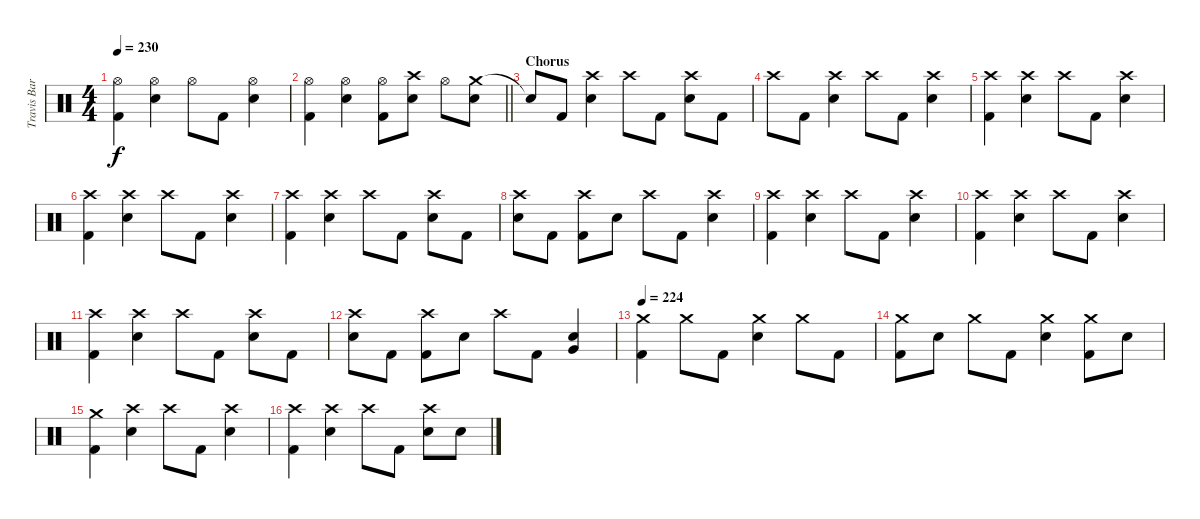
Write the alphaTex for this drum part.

\track ("Travis Barker - Drums" "Travis Bar") {instrument percussion}
\staff {score}
\articulation defaults
\ts (4 4)
\tempo 230
\clef neutral
\ks c
("Hi-Hat (open)" "Kick (hit) 2").4{dy f} ("Hi-Hat (open)" "Electric Snare (hit)").4 "Hi-Hat (open)".8 "Kick (hit) 2".8 ("Hi-Hat (open)" "Electric Snare (hit)").4 |
\barLineRight lightlight
("Hi-Hat (open)" "Kick (hit) 2").4 ("Hi-Hat (open)" "Electric Snare (hit)").4 ("Hi-Hat (open)" "Kick (hit) 2").8 ("Crash high (hit)" "Electric Snare (hit)").8 "Hi-Hat (open)".8 ("Crash medium (hit)" "Electric Snare (hit)").8 |
\section ("" "Chorus")
"Snare (hit)"{t}.8 "Kick (hit) 2".8 ("Crash high (hit)" "Electric Snare (hit)").4 "Crash high (hit)".8 "Kick (hit) 2".8 ("Crash high (hit)" "Electric Snare (hit)").8 "Kick (hit) 2".8 |
"Crash high (hit)".8 "Kick (hit) 2".8 ("Crash high (hit)" "Electric Snare (hit)").4 "Crash high (hit)".8 "Kick (hit) 2".8 ("Crash high (hit)" "Electric Snare (hit)").4 |
("Crash high (hit)" "Kick (hit) 2").4 ("Crash high (hit)" "Electric Snare (hit)").4 "Crash high (hit)".8 "Kick (hit) 2".8 ("Crash high (hit)" "Electric Snare (hit)").4 |
("Crash high (hit)" "Kick (hit) 2").4 ("Crash high (hit)" "Electric Snare (hit)").4 "Crash high (hit)".8 "Kick (hit) 2".8 ("Crash high (hit)" "Electric Snare (hit)").4 |
("Crash high (hit)" "Kick (hit) 2").4 ("Crash high (hit)" "Electric Snare (hit)").4 "Crash high (hit)".8 "Kick (hit) 2".8 ("Crash high (hit)" "Electric Snare (hit)").8 "Kick (hit) 2".8 |
("Crash high (hit)" "Electric Snare (hit)").8 "Kick (hit) 2".8 ("Crash high (hit)" "Kick (hit) 2").8 "Electric Snare (hit)".8 "Crash high (hit)".8 "Kick (hit) 2".8 ("Crash high (hit)" "Electric Snare (hit)").4 |
("Crash high (hit)" "Kick (hit) 2").4 ("Crash high (hit)" "Electric Snare (hit)").4 "Crash high (hit)".8 "Kick (hit) 2".8 ("Crash high (hit)" "Electric Snare (hit)").4 |
("Crash high (hit)" "Kick (hit) 2").4 ("Crash high (hit)" "Electric Snare (hit)").4 "Crash high (hit)".8 "Kick (hit) 2".8 ("Crash high (hit)" "Electric Snare (hit)").4 |
("Crash high (hit)" "Kick (hit) 2").4 ("Crash high (hit)" "Electric Snare (hit)").4 "Crash high (hit)".8 "Kick (hit) 2".8 ("Crash high (hit)" "Electric Snare (hit)").8 "Kick (hit) 2".8 |
("Crash high (hit)" "Electric Snare (hit)").8 "Kick (hit) 2".8 ("Crash high (hit)" "Kick (hit) 2").8 "Electric Snare (hit)".8 "Crash high (hit)".8 "Kick (hit) 2".8 ("Very Low Tom (hit)" "Electric Snare (hit)").4 |
\tempo 224
("Crash medium (hit)" "Kick (hit) 2").4 "Crash medium (hit)".8 "Kick (hit) 2".8 ("Crash medium (hit)" "Electric Snare (hit)").4 "Crash medium (hit)".8 "Kick (hit) 2".8 |
("Crash medium (hit)" "Kick (hit) 2").8 "Electric Snare (hit)".8 "Crash medium (hit)".8 "Kick (hit) 2".8 ("Crash medium (hit)" "Electric Snare (hit)").4 ("Crash medium (hit)" "Kick (hit) 2").8 "Electric Snare (hit)".8 |
("Crash medium (hit)" "Kick (hit) 2").4 ("Crash high (hit)" "Electric Snare (hit)").4 "Crash high (hit)".8 "Kick (hit) 2".8 ("Crash high (hit)" "Electric Snare (hit)").4 |
("Crash high (hit)" "Kick (hit) 2").4 ("Crash high (hit)" "Electric Snare (hit)").4 "Crash high (hit)".8 "Kick (hit) 2".8 ("Crash high (hit)" "Electric Snare (hit)").8 "Electric Snare (hit)".8
